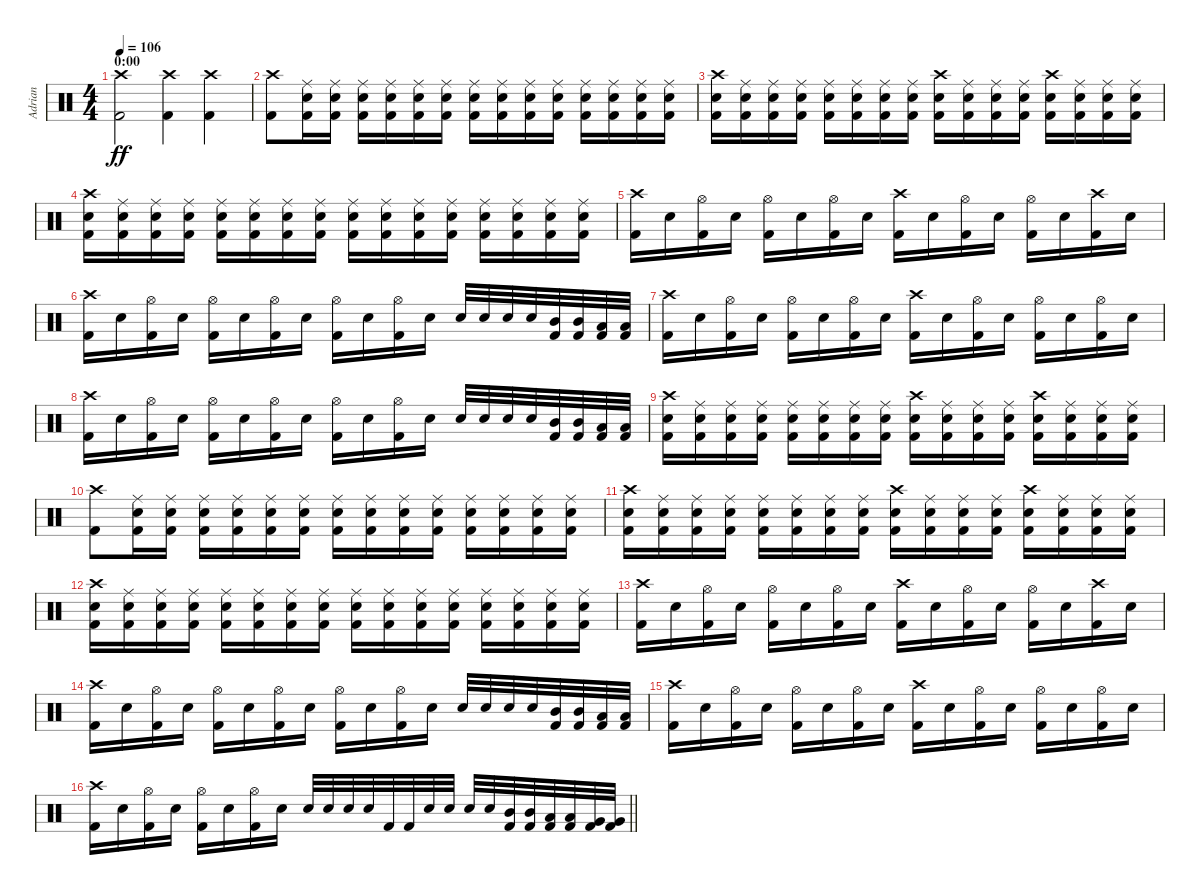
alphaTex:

\track ("Adrian" "Adrian") {instrument percussion}
\staff {score}
\articulation defaults
\ts (4 4)
\section ("" "0:00")
\tempo 106
\clef neutral
\ks c
("Kick (hit) 2" "Crash high (hit)").2{dy ff} ("Kick (hit) 2" "Crash high (hit)").4 ("Kick (hit) 2" "Crash high (hit)").4 |
("Kick (hit) 2" "Crash high (hit)").8 ("Kick (hit) 2" "Snare (hit) 2" "Ride (middle)").16 ("Kick (hit) 2" "Snare (hit) 2" "Ride (middle)").16 ("Kick (hit) 2" "Snare (hit) 2" "Ride (middle)").16 ("Kick (hit) 2" "Snare (hit) 2" "Ride (middle)").16 ("Kick (hit) 2" "Snare (hit) 2" "Ride (middle)").16 ("Kick (hit) 2" "Snare (hit) 2" "Ride (middle)").16 ("Kick (hit) 2" "Snare (hit) 2" "Ride (middle)").16 ("Kick (hit) 2" "Snare (hit) 2" "Ride (middle)").16 ("Kick (hit) 2" "Snare (hit) 2" "Ride (middle)").16 ("Kick (hit) 2" "Snare (hit) 2" "Ride (middle)").16 ("Kick (hit) 2" "Snare (hit) 2" "Ride (middle)").16 ("Kick (hit) 2" "Snare (hit) 2" "Ride (middle)").16 ("Kick (hit) 2" "Snare (hit) 2" "Ride (middle)").16 ("Kick (hit) 2" "Snare (hit) 2" "Ride (middle)").16 |
("Kick (hit) 2" "Snare (hit) 2" "Crash high (hit)").16 ("Kick (hit) 2" "Snare (hit) 2" "Ride (middle)").16 ("Kick (hit) 2" "Snare (hit) 2" "Ride (middle)").16 ("Kick (hit) 2" "Snare (hit) 2" "Ride (middle)").16 ("Kick (hit) 2" "Snare (hit) 2" "Ride (middle)").16 ("Kick (hit) 2" "Snare (hit) 2" "Ride (middle)").16 ("Kick (hit) 2" "Snare (hit) 2" "Ride (middle)").16 ("Kick (hit) 2" "Snare (hit) 2" "Ride (middle)").16 ("Kick (hit) 2" "Snare (hit) 2" "Crash high (hit)").16 ("Kick (hit) 2" "Snare (hit) 2" "Ride (middle)").16 ("Kick (hit) 2" "Snare (hit) 2" "Ride (middle)").16 ("Kick (hit) 2" "Snare (hit) 2" "Ride (middle)").16 ("Kick (hit) 2" "Snare (hit) 2" "Crash high (hit)").16 ("Kick (hit) 2" "Snare (hit) 2" "Ride (middle)").16 ("Kick (hit) 2" "Snare (hit) 2" "Ride (middle)").16 ("Kick (hit) 2" "Snare (hit) 2" "Ride (middle)").16 |
("Kick (hit) 2" "Snare (hit) 2" "Crash high (hit)").16 ("Kick (hit) 2" "Snare (hit) 2" "Ride (middle)").16 ("Kick (hit) 2" "Snare (hit) 2" "Ride (middle)").16 ("Kick (hit) 2" "Snare (hit) 2" "Ride (middle)").16 ("Kick (hit) 2" "Snare (hit) 2" "Ride (middle)").16 ("Kick (hit) 2" "Snare (hit) 2" "Ride (middle)").16 ("Kick (hit) 2" "Snare (hit) 2" "Ride (middle)").16 ("Kick (hit) 2" "Snare (hit) 2" "Ride (middle)").16 ("Kick (hit) 2" "Snare (hit) 2" "Ride (middle)").16 ("Kick (hit) 2" "Snare (hit) 2" "Ride (middle)").16 ("Kick (hit) 2" "Snare (hit) 2" "Ride (middle)").16 ("Kick (hit) 2" "Snare (hit) 2" "Ride (middle)").16 ("Kick (hit) 2" "Snare (hit) 2" "Ride (middle)").16 ("Kick (hit) 2" "Snare (hit) 2" "Ride (middle)").16 ("Kick (hit) 2" "Snare (hit) 2" "Ride (middle)").16 ("Kick (hit) 2" "Snare (hit) 2" "Ride (middle)").16 |
("Kick (hit) 2" "Crash high (hit)").16 "Snare (hit) 2".16 ("Kick (hit) 2" "Hi-Hat (open)").16 "Snare (hit) 2".16 ("Kick (hit) 2" "Hi-Hat (open)").16 "Snare (hit) 2".16 ("Kick (hit) 2" "Hi-Hat (open)").16 "Snare (hit) 2".16 ("Kick (hit) 2" "Crash high (hit)").16 "Snare (hit) 2".16 ("Kick (hit) 2" "Hi-Hat (open)").16 "Snare (hit) 2".16 ("Kick (hit) 2" "Hi-Hat (open)").16 "Snare (hit) 2".16 ("Kick (hit) 2" "Crash high (hit)").16 "Snare (hit) 2".16 |
("Kick (hit) 2" "Crash high (hit)").16 "Snare (hit) 2".16 ("Kick (hit) 2" "Hi-Hat (open)").16 "Snare (hit) 2".16 ("Kick (hit) 2" "Hi-Hat (open)").16 "Snare (hit) 2".16 ("Kick (hit) 2" "Hi-Hat (open)").16 "Snare (hit) 2".16 ("Kick (hit) 2" "Hi-Hat (open)").16 "Snare (hit) 2".16 ("Kick (hit) 2" "Hi-Hat (open)").16 "Snare (hit) 2".16 "Snare (hit) 2".32 "Snare (hit) 2".32 "Snare (hit) 2".32 "Snare (hit) 2".32 ("Kick (hit) 2" "Mid Tom (hit)").32 ("Kick (hit) 2" "Mid Tom (hit)").32 ("Kick (hit) 2" "Low Tom (hit)").32 ("Kick (hit) 2" "Low Tom (hit)").32 |
("Kick (hit) 2" "Crash high (hit)").16 "Snare (hit) 2".16 ("Kick (hit) 2" "Hi-Hat (open)").16 "Snare (hit) 2".16 ("Kick (hit) 2" "Hi-Hat (open)").16 "Snare (hit) 2".16 ("Kick (hit) 2" "Hi-Hat (open)").16 "Snare (hit) 2".16 ("Kick (hit) 2" "Crash high (hit)").16 "Snare (hit) 2".16 ("Kick (hit) 2" "Hi-Hat (open)").16 "Snare (hit) 2".16 ("Kick (hit) 2" "Hi-Hat (open)").16 "Snare (hit) 2".16 ("Kick (hit) 2" "Hi-Hat (open)").16 "Snare (hit) 2".16 |
("Kick (hit) 2" "Crash high (hit)").16 "Snare (hit) 2".16 ("Kick (hit) 2" "Hi-Hat (open)").16 "Snare (hit) 2".16 ("Kick (hit) 2" "Hi-Hat (open)").16 "Snare (hit) 2".16 ("Kick (hit) 2" "Hi-Hat (open)").16 "Snare (hit) 2".16 ("Kick (hit) 2" "Hi-Hat (open)").16 "Snare (hit) 2".16 ("Kick (hit) 2" "Hi-Hat (open)").16 "Snare (hit) 2".16 "Snare (hit) 2".32 "Snare (hit) 2".32 "Snare (hit) 2".32 "Snare (hit) 2".32 ("Kick (hit) 2" "Mid Tom (hit)").32 ("Kick (hit) 2" "Mid Tom (hit)").32 ("Kick (hit) 2" "Low Tom (hit)").32 ("Kick (hit) 2" "Low Tom (hit)").32 |
("Kick (hit) 2" "Snare (hit) 2" "Crash high (hit)").16 ("Kick (hit) 2" "Snare (hit) 2" "Ride (middle)").16 ("Kick (hit) 2" "Snare (hit) 2" "Ride (middle)").16 ("Kick (hit) 2" "Snare (hit) 2" "Ride (middle)").16 ("Kick (hit) 2" "Snare (hit) 2" "Ride (middle)").16 ("Kick (hit) 2" "Snare (hit) 2" "Ride (middle)").16 ("Kick (hit) 2" "Snare (hit) 2" "Ride (middle)").16 ("Kick (hit) 2" "Snare (hit) 2" "Ride (middle)").16 ("Kick (hit) 2" "Snare (hit) 2" "Crash high (hit)").16 ("Kick (hit) 2" "Snare (hit) 2" "Ride (middle)").16 ("Kick (hit) 2" "Snare (hit) 2" "Ride (middle)").16 ("Kick (hit) 2" "Snare (hit) 2" "Ride (middle)").16 ("Kick (hit) 2" "Snare (hit) 2" "Crash high (hit)").16 ("Kick (hit) 2" "Snare (hit) 2" "Ride (middle)").16 ("Kick (hit) 2" "Snare (hit) 2" "Ride (middle)").16 ("Kick (hit) 2" "Snare (hit) 2" "Ride (middle)").16 |
("Kick (hit) 2" "Crash high (hit)").8 ("Kick (hit) 2" "Snare (hit) 2" "Ride (middle)").16 ("Kick (hit) 2" "Snare (hit) 2" "Ride (middle)").16 ("Kick (hit) 2" "Snare (hit) 2" "Ride (middle)").16 ("Kick (hit) 2" "Snare (hit) 2" "Ride (middle)").16 ("Kick (hit) 2" "Snare (hit) 2" "Ride (middle)").16 ("Kick (hit) 2" "Snare (hit) 2" "Ride (middle)").16 ("Kick (hit) 2" "Snare (hit) 2" "Ride (middle)").16 ("Kick (hit) 2" "Snare (hit) 2" "Ride (middle)").16 ("Kick (hit) 2" "Snare (hit) 2" "Ride (middle)").16 ("Kick (hit) 2" "Snare (hit) 2" "Ride (middle)").16 ("Kick (hit) 2" "Snare (hit) 2" "Ride (middle)").16 ("Kick (hit) 2" "Snare (hit) 2" "Ride (middle)").16 ("Kick (hit) 2" "Snare (hit) 2" "Ride (middle)").16 ("Kick (hit) 2" "Snare (hit) 2" "Ride (middle)").16 |
("Kick (hit) 2" "Snare (hit) 2" "Crash high (hit)").16 ("Kick (hit) 2" "Snare (hit) 2" "Ride (middle)").16 ("Kick (hit) 2" "Snare (hit) 2" "Ride (middle)").16 ("Kick (hit) 2" "Snare (hit) 2" "Ride (middle)").16 ("Kick (hit) 2" "Snare (hit) 2" "Ride (middle)").16 ("Kick (hit) 2" "Snare (hit) 2" "Ride (middle)").16 ("Kick (hit) 2" "Snare (hit) 2" "Ride (middle)").16 ("Kick (hit) 2" "Snare (hit) 2" "Ride (middle)").16 ("Kick (hit) 2" "Snare (hit) 2" "Crash high (hit)").16 ("Kick (hit) 2" "Snare (hit) 2" "Ride (middle)").16 ("Kick (hit) 2" "Snare (hit) 2" "Ride (middle)").16 ("Kick (hit) 2" "Snare (hit) 2" "Ride (middle)").16 ("Kick (hit) 2" "Snare (hit) 2" "Crash high (hit)").16 ("Kick (hit) 2" "Snare (hit) 2" "Ride (middle)").16 ("Kick (hit) 2" "Snare (hit) 2" "Ride (middle)").16 ("Kick (hit) 2" "Snare (hit) 2" "Ride (middle)").16 |
("Kick (hit) 2" "Snare (hit) 2" "Crash high (hit)").16 ("Kick (hit) 2" "Snare (hit) 2" "Ride (middle)").16 ("Kick (hit) 2" "Snare (hit) 2" "Ride (middle)").16 ("Kick (hit) 2" "Snare (hit) 2" "Ride (middle)").16 ("Kick (hit) 2" "Snare (hit) 2" "Ride (middle)").16 ("Kick (hit) 2" "Snare (hit) 2" "Ride (middle)").16 ("Kick (hit) 2" "Snare (hit) 2" "Ride (middle)").16 ("Kick (hit) 2" "Snare (hit) 2" "Ride (middle)").16 ("Kick (hit) 2" "Snare (hit) 2" "Ride (middle)").16 ("Kick (hit) 2" "Snare (hit) 2" "Ride (middle)").16 ("Kick (hit) 2" "Snare (hit) 2" "Ride (middle)").16 ("Kick (hit) 2" "Snare (hit) 2" "Ride (middle)").16 ("Kick (hit) 2" "Snare (hit) 2" "Ride (middle)").16 ("Kick (hit) 2" "Snare (hit) 2" "Ride (middle)").16 ("Kick (hit) 2" "Snare (hit) 2" "Ride (middle)").16 ("Kick (hit) 2" "Snare (hit) 2" "Ride (middle)").16 |
("Kick (hit) 2" "Crash high (hit)").16 "Snare (hit) 2".16 ("Kick (hit) 2" "Hi-Hat (open)").16 "Snare (hit) 2".16 ("Kick (hit) 2" "Hi-Hat (open)").16 "Snare (hit) 2".16 ("Kick (hit) 2" "Hi-Hat (open)").16 "Snare (hit) 2".16 ("Kick (hit) 2" "Crash high (hit)").16 "Snare (hit) 2".16 ("Kick (hit) 2" "Hi-Hat (open)").16 "Snare (hit) 2".16 ("Kick (hit) 2" "Hi-Hat (open)").16 "Snare (hit) 2".16 ("Kick (hit) 2" "Crash high (hit)").16 "Snare (hit) 2".16 |
("Kick (hit) 2" "Crash high (hit)").16 "Snare (hit) 2".16 ("Kick (hit) 2" "Hi-Hat (open)").16 "Snare (hit) 2".16 ("Kick (hit) 2" "Hi-Hat (open)").16 "Snare (hit) 2".16 ("Kick (hit) 2" "Hi-Hat (open)").16 "Snare (hit) 2".16 ("Kick (hit) 2" "Hi-Hat (open)").16 "Snare (hit) 2".16 ("Kick (hit) 2" "Hi-Hat (open)").16 "Snare (hit) 2".16 "Snare (hit) 2".32 "Snare (hit) 2".32 "Snare (hit) 2".32 "Snare (hit) 2".32 ("Kick (hit) 2" "Mid Tom (hit)").32 ("Kick (hit) 2" "Mid Tom (hit)").32 ("Kick (hit) 2" "Low Tom (hit)").32 ("Kick (hit) 2" "Low Tom (hit)").32 |
("Kick (hit) 2" "Crash high (hit)").16 "Snare (hit) 2".16 ("Kick (hit) 2" "Hi-Hat (open)").16 "Snare (hit) 2".16 ("Kick (hit) 2" "Hi-Hat (open)").16 "Snare (hit) 2".16 ("Kick (hit) 2" "Hi-Hat (open)").16 "Snare (hit) 2".16 ("Kick (hit) 2" "Crash high (hit)").16 "Snare (hit) 2".16 ("Kick (hit) 2" "Hi-Hat (open)").16 "Snare (hit) 2".16 ("Kick (hit) 2" "Hi-Hat (open)").16 "Snare (hit) 2".16 ("Kick (hit) 2" "Hi-Hat (open)").16 "Snare (hit) 2".16 |
\barLineRight lightlight
("Kick (hit) 2" "Crash high (hit)").16 "Snare (hit) 2".16 ("Kick (hit) 2" "Hi-Hat (open)").16 "Snare (hit) 2".16 ("Kick (hit) 2" "Hi-Hat (open)").16 "Snare (hit) 2".16 ("Kick (hit) 2" "Hi-Hat (open)").16 "Snare (hit) 2".16 "Snare (hit) 2".32 "Snare (hit) 2".32 "Snare (hit) 2".32 "Snare (hit) 2".32 "Kick (hit) 2".32 "Kick (hit) 2".32 "Snare (hit) 2".32 "Snare (hit) 2".32 "Snare (hit) 2".32 "Snare (hit) 2".32 ("Kick (hit) 2" "Mid Tom (hit)").32 ("Kick (hit) 2" "Mid Tom (hit)").32 ("Kick (hit) 2" "Low Tom (hit)").32 ("Kick (hit) 2" "Low Tom (hit)").32 ("Kick (hit) 2" "Very Low Tom (hit)").32 ("Kick (hit) 2" "Very Low Tom (hit)").32
